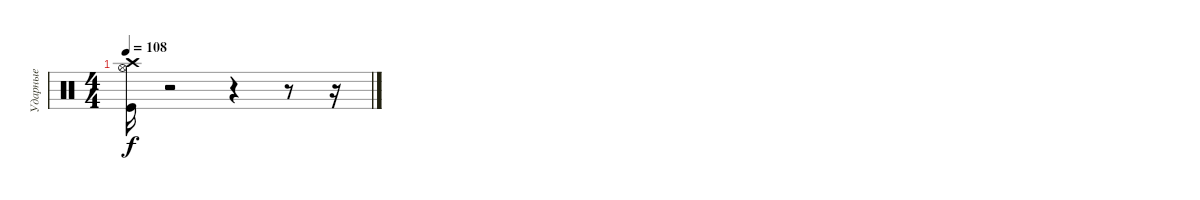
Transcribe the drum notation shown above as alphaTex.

\track ("Ударные" "Ударные") {instrument percussion}
\staff {score}
\articulation defaults
\ts (4 4)
\tempo 108
\clef neutral
\ks c
("Hi-Hat (open)" "Kick (hit)" "Crash high (hit)").16{dy f} r.2 r.4 r.8 r.16
